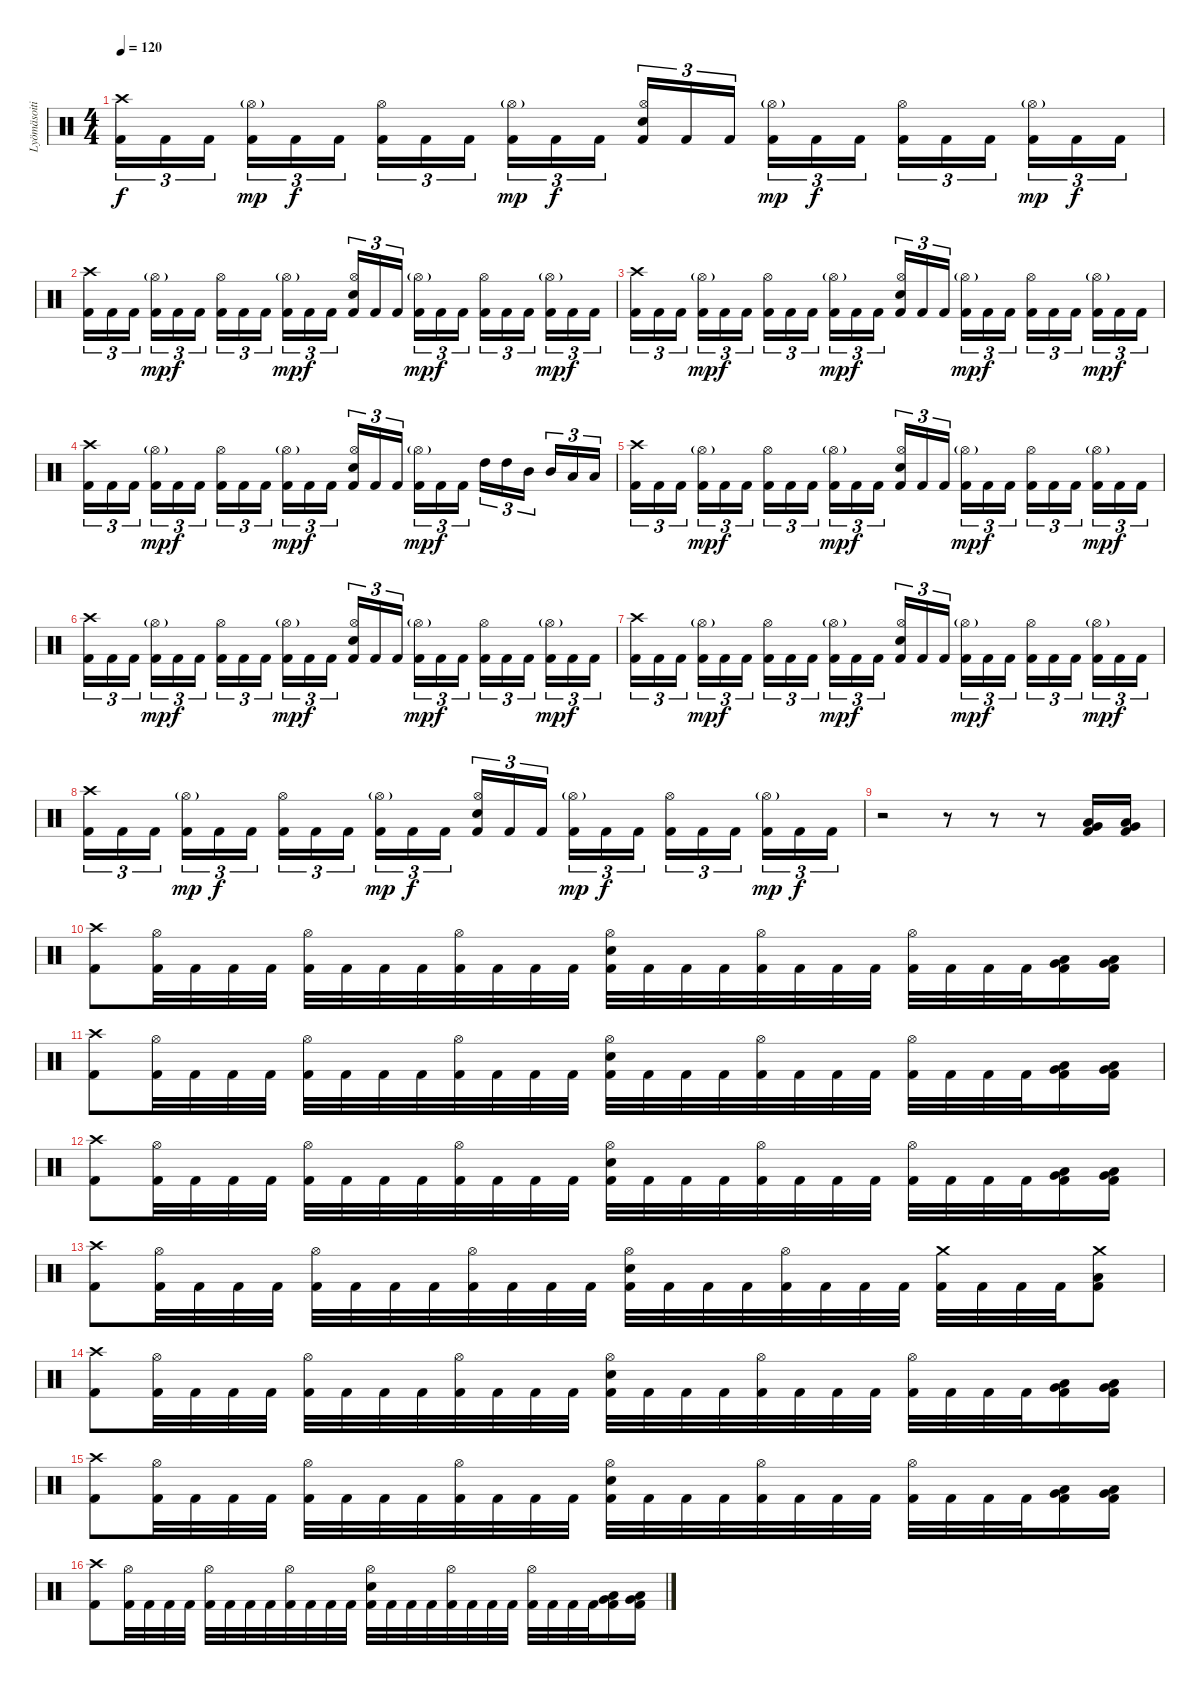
\track ("Lyömäsoitin" "Lyömäsoiti") {instrument percussion}
\staff {score}
\articulation defaults
\ts (4 4)
\tempo 120
\clef neutral
\ks c
("Crash high (hit)" "Kick (hit) 2").16{tu (3 2) dy f} "Kick (hit) 2".16{tu (3 2)} "Kick (hit) 2".16{tu (3 2) beam splitsecondary} ("Hi-Hat (open)"{g} "Kick (hit) 2").16{tu (3 2) dy mp} "Kick (hit) 2".16{tu (3 2) dy f} "Kick (hit) 2".16{tu (3 2)} ("Hi-Hat (open)" "Kick (hit) 2").16{tu (3 2)} "Kick (hit) 2".16{tu (3 2)} "Kick (hit) 2".16{tu (3 2) beam splitsecondary} ("Hi-Hat (open)"{g} "Kick (hit) 2").16{tu (3 2) dy mp} "Kick (hit) 2".16{tu (3 2) dy f} "Kick (hit) 2".16{tu (3 2)} ("Hi-Hat (open)" "Snare (hit) 2" "Kick (hit) 2").16{tu (3 2)} "Kick (hit) 2".16{tu (3 2)} "Kick (hit) 2".16{tu (3 2) beam splitsecondary} ("Hi-Hat (open)"{g} "Kick (hit) 2").16{tu (3 2) dy mp} "Kick (hit) 2".16{tu (3 2) dy f} "Kick (hit) 2".16{tu (3 2)} ("Hi-Hat (open)" "Kick (hit) 2").16{tu (3 2)} "Kick (hit) 2".16{tu (3 2)} "Kick (hit) 2".16{tu (3 2) beam splitsecondary} ("Hi-Hat (open)"{g} "Kick (hit) 2").16{tu (3 2) dy mp} "Kick (hit) 2".16{tu (3 2) dy f} "Kick (hit) 2".16{tu (3 2)} |
("Crash high (hit)" "Kick (hit) 2").16{tu (3 2)} "Kick (hit) 2".16{tu (3 2)} "Kick (hit) 2".16{tu (3 2) beam splitsecondary} ("Hi-Hat (open)"{g} "Kick (hit) 2").16{tu (3 2) dy mp} "Kick (hit) 2".16{tu (3 2) dy f} "Kick (hit) 2".16{tu (3 2)} ("Hi-Hat (open)" "Kick (hit) 2").16{tu (3 2)} "Kick (hit) 2".16{tu (3 2)} "Kick (hit) 2".16{tu (3 2) beam splitsecondary} ("Hi-Hat (open)"{g} "Kick (hit) 2").16{tu (3 2) dy mp} "Kick (hit) 2".16{tu (3 2) dy f} "Kick (hit) 2".16{tu (3 2)} ("Hi-Hat (open)" "Snare (hit) 2" "Kick (hit) 2").16{tu (3 2)} "Kick (hit) 2".16{tu (3 2)} "Kick (hit) 2".16{tu (3 2) beam splitsecondary} ("Hi-Hat (open)"{g} "Kick (hit) 2").16{tu (3 2) dy mp} "Kick (hit) 2".16{tu (3 2) dy f} "Kick (hit) 2".16{tu (3 2)} ("Hi-Hat (open)" "Kick (hit) 2").16{tu (3 2)} "Kick (hit) 2".16{tu (3 2)} "Kick (hit) 2".16{tu (3 2) beam splitsecondary} ("Hi-Hat (open)"{g} "Kick (hit) 2").16{tu (3 2) dy mp} "Kick (hit) 2".16{tu (3 2) dy f} "Kick (hit) 2".16{tu (3 2)} |
("Crash high (hit)" "Kick (hit) 2").16{tu (3 2)} "Kick (hit) 2".16{tu (3 2)} "Kick (hit) 2".16{tu (3 2) beam splitsecondary} ("Hi-Hat (open)"{g} "Kick (hit) 2").16{tu (3 2) dy mp} "Kick (hit) 2".16{tu (3 2) dy f} "Kick (hit) 2".16{tu (3 2)} ("Hi-Hat (open)" "Kick (hit) 2").16{tu (3 2)} "Kick (hit) 2".16{tu (3 2)} "Kick (hit) 2".16{tu (3 2) beam splitsecondary} ("Hi-Hat (open)"{g} "Kick (hit) 2").16{tu (3 2) dy mp} "Kick (hit) 2".16{tu (3 2) dy f} "Kick (hit) 2".16{tu (3 2)} ("Hi-Hat (open)" "Snare (hit) 2" "Kick (hit) 2").16{tu (3 2)} "Kick (hit) 2".16{tu (3 2)} "Kick (hit) 2".16{tu (3 2) beam splitsecondary} ("Hi-Hat (open)"{g} "Kick (hit) 2").16{tu (3 2) dy mp} "Kick (hit) 2".16{tu (3 2) dy f} "Kick (hit) 2".16{tu (3 2)} ("Hi-Hat (open)" "Kick (hit) 2").16{tu (3 2)} "Kick (hit) 2".16{tu (3 2)} "Kick (hit) 2".16{tu (3 2) beam splitsecondary} ("Hi-Hat (open)"{g} "Kick (hit) 2").16{tu (3 2) dy mp} "Kick (hit) 2".16{tu (3 2) dy f} "Kick (hit) 2".16{tu (3 2)} |
("Crash high (hit)" "Kick (hit) 2").16{tu (3 2)} "Kick (hit) 2".16{tu (3 2)} "Kick (hit) 2".16{tu (3 2) beam splitsecondary} ("Hi-Hat (open)"{g} "Kick (hit) 2").16{tu (3 2) dy mp} "Kick (hit) 2".16{tu (3 2) dy f} "Kick (hit) 2".16{tu (3 2)} ("Hi-Hat (open)" "Kick (hit) 2").16{tu (3 2)} "Kick (hit) 2".16{tu (3 2)} "Kick (hit) 2".16{tu (3 2) beam splitsecondary} ("Hi-Hat (open)"{g} "Kick (hit) 2").16{tu (3 2) dy mp} "Kick (hit) 2".16{tu (3 2) dy f} "Kick (hit) 2".16{tu (3 2)} ("Hi-Hat (open)" "Snare (hit) 2" "Kick (hit) 2").16{tu (3 2)} "Kick (hit) 2".16{tu (3 2)} "Kick (hit) 2".16{tu (3 2) beam splitsecondary} ("Hi-Hat (open)"{g} "Kick (hit) 2").16{tu (3 2) dy mp} "Kick (hit) 2".16{tu (3 2) dy f} "Kick (hit) 2".16{tu (3 2)} "High Tom (hit)".16{tu (3 2)} "High Tom (hit)".16{tu (3 2)} "Mid Tom (hit)".16{tu (3 2) beam splitsecondary} "Mid Tom (hit)".16{tu (3 2)} "Low Tom (hit)".16{tu (3 2)} "Low Tom (hit)".16{tu (3 2)} |
("Crash high (hit)" "Kick (hit) 2").16{tu (3 2)} "Kick (hit) 2".16{tu (3 2)} "Kick (hit) 2".16{tu (3 2) beam splitsecondary} ("Hi-Hat (open)"{g} "Kick (hit) 2").16{tu (3 2) dy mp} "Kick (hit) 2".16{tu (3 2) dy f} "Kick (hit) 2".16{tu (3 2)} ("Hi-Hat (open)" "Kick (hit) 2").16{tu (3 2)} "Kick (hit) 2".16{tu (3 2)} "Kick (hit) 2".16{tu (3 2) beam splitsecondary} ("Hi-Hat (open)"{g} "Kick (hit) 2").16{tu (3 2) dy mp} "Kick (hit) 2".16{tu (3 2) dy f} "Kick (hit) 2".16{tu (3 2)} ("Hi-Hat (open)" "Snare (hit) 2" "Kick (hit) 2").16{tu (3 2)} "Kick (hit) 2".16{tu (3 2)} "Kick (hit) 2".16{tu (3 2) beam splitsecondary} ("Hi-Hat (open)"{g} "Kick (hit) 2").16{tu (3 2) dy mp} "Kick (hit) 2".16{tu (3 2) dy f} "Kick (hit) 2".16{tu (3 2)} ("Hi-Hat (open)" "Kick (hit) 2").16{tu (3 2)} "Kick (hit) 2".16{tu (3 2)} "Kick (hit) 2".16{tu (3 2) beam splitsecondary} ("Hi-Hat (open)"{g} "Kick (hit) 2").16{tu (3 2) dy mp} "Kick (hit) 2".16{tu (3 2) dy f} "Kick (hit) 2".16{tu (3 2)} |
("Crash high (hit)" "Kick (hit) 2").16{tu (3 2)} "Kick (hit) 2".16{tu (3 2)} "Kick (hit) 2".16{tu (3 2) beam splitsecondary} ("Hi-Hat (open)"{g} "Kick (hit) 2").16{tu (3 2) dy mp} "Kick (hit) 2".16{tu (3 2) dy f} "Kick (hit) 2".16{tu (3 2)} ("Hi-Hat (open)" "Kick (hit) 2").16{tu (3 2)} "Kick (hit) 2".16{tu (3 2)} "Kick (hit) 2".16{tu (3 2) beam splitsecondary} ("Hi-Hat (open)"{g} "Kick (hit) 2").16{tu (3 2) dy mp} "Kick (hit) 2".16{tu (3 2) dy f} "Kick (hit) 2".16{tu (3 2)} ("Hi-Hat (open)" "Snare (hit) 2" "Kick (hit) 2").16{tu (3 2)} "Kick (hit) 2".16{tu (3 2)} "Kick (hit) 2".16{tu (3 2) beam splitsecondary} ("Hi-Hat (open)"{g} "Kick (hit) 2").16{tu (3 2) dy mp} "Kick (hit) 2".16{tu (3 2) dy f} "Kick (hit) 2".16{tu (3 2)} ("Hi-Hat (open)" "Kick (hit) 2").16{tu (3 2)} "Kick (hit) 2".16{tu (3 2)} "Kick (hit) 2".16{tu (3 2) beam splitsecondary} ("Hi-Hat (open)"{g} "Kick (hit) 2").16{tu (3 2) dy mp} "Kick (hit) 2".16{tu (3 2) dy f} "Kick (hit) 2".16{tu (3 2)} |
("Crash high (hit)" "Kick (hit) 2").16{tu (3 2)} "Kick (hit) 2".16{tu (3 2)} "Kick (hit) 2".16{tu (3 2) beam splitsecondary} ("Hi-Hat (open)"{g} "Kick (hit) 2").16{tu (3 2) dy mp} "Kick (hit) 2".16{tu (3 2) dy f} "Kick (hit) 2".16{tu (3 2)} ("Hi-Hat (open)" "Kick (hit) 2").16{tu (3 2)} "Kick (hit) 2".16{tu (3 2)} "Kick (hit) 2".16{tu (3 2) beam splitsecondary} ("Hi-Hat (open)"{g} "Kick (hit) 2").16{tu (3 2) dy mp} "Kick (hit) 2".16{tu (3 2) dy f} "Kick (hit) 2".16{tu (3 2)} ("Hi-Hat (open)" "Snare (hit) 2" "Kick (hit) 2").16{tu (3 2)} "Kick (hit) 2".16{tu (3 2)} "Kick (hit) 2".16{tu (3 2) beam splitsecondary} ("Hi-Hat (open)"{g} "Kick (hit) 2").16{tu (3 2) dy mp} "Kick (hit) 2".16{tu (3 2) dy f} "Kick (hit) 2".16{tu (3 2)} ("Hi-Hat (open)" "Kick (hit) 2").16{tu (3 2)} "Kick (hit) 2".16{tu (3 2)} "Kick (hit) 2".16{tu (3 2) beam splitsecondary} ("Hi-Hat (open)"{g} "Kick (hit) 2").16{tu (3 2) dy mp} "Kick (hit) 2".16{tu (3 2) dy f} "Kick (hit) 2".16{tu (3 2)} |
("Crash high (hit)" "Kick (hit) 2").16{tu (3 2)} "Kick (hit) 2".16{tu (3 2)} "Kick (hit) 2".16{tu (3 2) beam splitsecondary} ("Hi-Hat (open)"{g} "Kick (hit) 2").16{tu (3 2) dy mp} "Kick (hit) 2".16{tu (3 2) dy f} "Kick (hit) 2".16{tu (3 2)} ("Hi-Hat (open)" "Kick (hit) 2").16{tu (3 2)} "Kick (hit) 2".16{tu (3 2)} "Kick (hit) 2".16{tu (3 2) beam splitsecondary} ("Hi-Hat (open)"{g} "Kick (hit) 2").16{tu (3 2) dy mp} "Kick (hit) 2".16{tu (3 2) dy f} "Kick (hit) 2".16{tu (3 2)} ("Hi-Hat (open)" "Snare (hit) 2" "Kick (hit) 2").16{tu (3 2)} "Kick (hit) 2".16{tu (3 2)} "Kick (hit) 2".16{tu (3 2) beam splitsecondary} ("Hi-Hat (open)"{g} "Kick (hit) 2").16{tu (3 2) dy mp} "Kick (hit) 2".16{tu (3 2) dy f} "Kick (hit) 2".16{tu (3 2)} ("Hi-Hat (open)" "Kick (hit) 2").16{tu (3 2)} "Kick (hit) 2".16{tu (3 2)} "Kick (hit) 2".16{tu (3 2) beam splitsecondary} ("Hi-Hat (open)"{g} "Kick (hit) 2").16{tu (3 2) dy mp} "Kick (hit) 2".16{tu (3 2) dy f} "Kick (hit) 2".16{tu (3 2)} |
r.2 r.8 r.8 r.8 ("Very Low Tom (hit)" "Low Floor Tom (hit)" "Kick (hit) 2").16 ("Very Low Tom (hit)" "Low Floor Tom (hit)" "Kick (hit) 2").16 |
("Crash high (hit)" "Kick (hit) 2").8 ("Hi-Hat (open)" "Kick (hit) 2").32 "Kick (hit) 2".32 "Kick (hit) 2".32 "Kick (hit) 2".32 ("Hi-Hat (open)" "Kick (hit) 2").32 "Kick (hit) 2".32 "Kick (hit) 2".32 "Kick (hit) 2".32 ("Hi-Hat (open)" "Kick (hit) 2").32 "Kick (hit) 2".32 "Kick (hit) 2".32 "Kick (hit) 2".32 ("Hi-Hat (open)" "Snare (hit) 2" "Kick (hit) 2").32 "Kick (hit) 2".32 "Kick (hit) 2".32 "Kick (hit) 2".32 ("Hi-Hat (open)" "Kick (hit) 2").32 "Kick (hit) 2".32 "Kick (hit) 2".32 "Kick (hit) 2".32 ("Hi-Hat (open)" "Kick (hit) 2").32 "Kick (hit) 2".32 "Kick (hit) 2".32 "Kick (hit) 2".32 ("Very Low Tom (hit)" "Low Floor Tom (hit)" "Kick (hit) 2").16 ("Very Low Tom (hit)" "Low Floor Tom (hit)" "Kick (hit) 2").16 |
("Crash high (hit)" "Kick (hit) 2").8 ("Hi-Hat (open)" "Kick (hit) 2").32 "Kick (hit) 2".32 "Kick (hit) 2".32 "Kick (hit) 2".32 ("Hi-Hat (open)" "Kick (hit) 2").32 "Kick (hit) 2".32 "Kick (hit) 2".32 "Kick (hit) 2".32 ("Hi-Hat (open)" "Kick (hit) 2").32 "Kick (hit) 2".32 "Kick (hit) 2".32 "Kick (hit) 2".32 ("Hi-Hat (open)" "Snare (hit) 2" "Kick (hit) 2").32 "Kick (hit) 2".32 "Kick (hit) 2".32 "Kick (hit) 2".32 ("Hi-Hat (open)" "Kick (hit) 2").32 "Kick (hit) 2".32 "Kick (hit) 2".32 "Kick (hit) 2".32 ("Hi-Hat (open)" "Kick (hit) 2").32 "Kick (hit) 2".32 "Kick (hit) 2".32 "Kick (hit) 2".32 ("Very Low Tom (hit)" "Low Floor Tom (hit)" "Kick (hit) 2").16 ("Very Low Tom (hit)" "Low Floor Tom (hit)" "Kick (hit) 2").16 |
("Crash high (hit)" "Kick (hit) 2").8 ("Hi-Hat (open)" "Kick (hit) 2").32 "Kick (hit) 2".32 "Kick (hit) 2".32 "Kick (hit) 2".32 ("Hi-Hat (open)" "Kick (hit) 2").32 "Kick (hit) 2".32 "Kick (hit) 2".32 "Kick (hit) 2".32 ("Hi-Hat (open)" "Kick (hit) 2").32 "Kick (hit) 2".32 "Kick (hit) 2".32 "Kick (hit) 2".32 ("Hi-Hat (open)" "Snare (hit) 2" "Kick (hit) 2").32 "Kick (hit) 2".32 "Kick (hit) 2".32 "Kick (hit) 2".32 ("Hi-Hat (open)" "Kick (hit) 2").32 "Kick (hit) 2".32 "Kick (hit) 2".32 "Kick (hit) 2".32 ("Hi-Hat (open)" "Kick (hit) 2").32 "Kick (hit) 2".32 "Kick (hit) 2".32 "Kick (hit) 2".32 ("Very Low Tom (hit)" "Low Floor Tom (hit)" "Kick (hit) 2").16 ("Very Low Tom (hit)" "Low Floor Tom (hit)" "Kick (hit) 2").16 |
("Crash high (hit)" "Kick (hit) 2").8 ("Hi-Hat (open)" "Kick (hit) 2").32 "Kick (hit) 2".32 "Kick (hit) 2".32 "Kick (hit) 2".32 ("Hi-Hat (open)" "Kick (hit) 2").32 "Kick (hit) 2".32 "Kick (hit) 2".32 "Kick (hit) 2".32 ("Hi-Hat (open)" "Kick (hit) 2").32 "Kick (hit) 2".32 "Kick (hit) 2".32 "Kick (hit) 2".32 ("Hi-Hat (open)" "Snare (hit) 2" "Kick (hit) 2").32 "Kick (hit) 2".32 "Kick (hit) 2".32 "Kick (hit) 2".32 ("Hi-Hat (open)" "Kick (hit) 2").32 "Kick (hit) 2".32 "Kick (hit) 2".32 "Kick (hit) 2".32 ("Crash medium (hit)" "Kick (hit) 2").32 "Kick (hit) 2".32 "Kick (hit) 2".32 "Kick (hit) 2".32 ("Crash medium (hit)" "Low Floor Tom (hit)" "Kick (hit) 2").8 |
("Crash high (hit)" "Kick (hit) 2").8 ("Hi-Hat (open)" "Kick (hit) 2").32 "Kick (hit) 2".32 "Kick (hit) 2".32 "Kick (hit) 2".32 ("Hi-Hat (open)" "Kick (hit) 2").32 "Kick (hit) 2".32 "Kick (hit) 2".32 "Kick (hit) 2".32 ("Hi-Hat (open)" "Kick (hit) 2").32 "Kick (hit) 2".32 "Kick (hit) 2".32 "Kick (hit) 2".32 ("Hi-Hat (open)" "Snare (hit) 2" "Kick (hit) 2").32 "Kick (hit) 2".32 "Kick (hit) 2".32 "Kick (hit) 2".32 ("Hi-Hat (open)" "Kick (hit) 2").32 "Kick (hit) 2".32 "Kick (hit) 2".32 "Kick (hit) 2".32 ("Hi-Hat (open)" "Kick (hit) 2").32 "Kick (hit) 2".32 "Kick (hit) 2".32 "Kick (hit) 2".32 ("Very Low Tom (hit)" "Low Floor Tom (hit)" "Kick (hit) 2").16 ("Very Low Tom (hit)" "Low Floor Tom (hit)" "Kick (hit) 2").16 |
("Crash high (hit)" "Kick (hit) 2").8 ("Hi-Hat (open)" "Kick (hit) 2").32 "Kick (hit) 2".32 "Kick (hit) 2".32 "Kick (hit) 2".32 ("Hi-Hat (open)" "Kick (hit) 2").32 "Kick (hit) 2".32 "Kick (hit) 2".32 "Kick (hit) 2".32 ("Hi-Hat (open)" "Kick (hit) 2").32 "Kick (hit) 2".32 "Kick (hit) 2".32 "Kick (hit) 2".32 ("Hi-Hat (open)" "Snare (hit) 2" "Kick (hit) 2").32 "Kick (hit) 2".32 "Kick (hit) 2".32 "Kick (hit) 2".32 ("Hi-Hat (open)" "Kick (hit) 2").32 "Kick (hit) 2".32 "Kick (hit) 2".32 "Kick (hit) 2".32 ("Hi-Hat (open)" "Kick (hit) 2").32 "Kick (hit) 2".32 "Kick (hit) 2".32 "Kick (hit) 2".32 ("Very Low Tom (hit)" "Low Floor Tom (hit)" "Kick (hit) 2").16 ("Very Low Tom (hit)" "Low Floor Tom (hit)" "Kick (hit) 2").16 |
("Crash high (hit)" "Kick (hit) 2").8 ("Hi-Hat (open)" "Kick (hit) 2").32 "Kick (hit) 2".32 "Kick (hit) 2".32 "Kick (hit) 2".32 ("Hi-Hat (open)" "Kick (hit) 2").32 "Kick (hit) 2".32 "Kick (hit) 2".32 "Kick (hit) 2".32 ("Hi-Hat (open)" "Kick (hit) 2").32 "Kick (hit) 2".32 "Kick (hit) 2".32 "Kick (hit) 2".32 ("Hi-Hat (open)" "Snare (hit) 2" "Kick (hit) 2").32 "Kick (hit) 2".32 "Kick (hit) 2".32 "Kick (hit) 2".32 ("Hi-Hat (open)" "Kick (hit) 2").32 "Kick (hit) 2".32 "Kick (hit) 2".32 "Kick (hit) 2".32 ("Hi-Hat (open)" "Kick (hit) 2").32 "Kick (hit) 2".32 "Kick (hit) 2".32 "Kick (hit) 2".32 ("Very Low Tom (hit)" "Low Floor Tom (hit)" "Kick (hit) 2").16 ("Very Low Tom (hit)" "Low Floor Tom (hit)" "Kick (hit) 2").16
